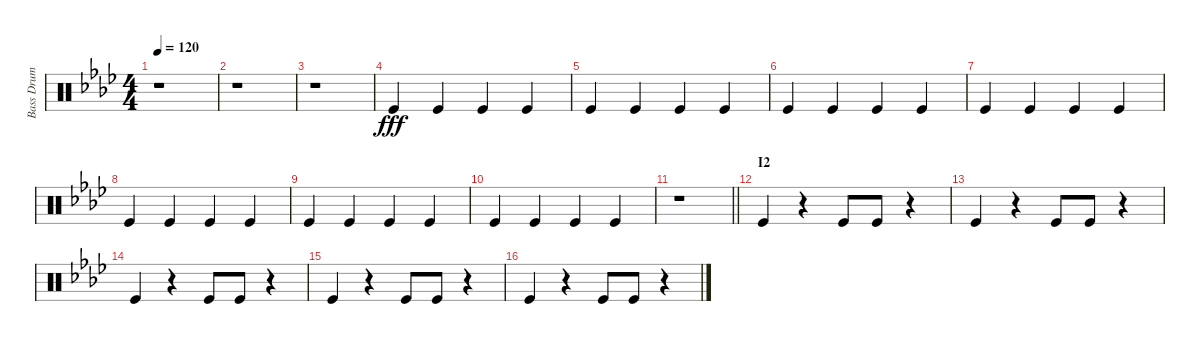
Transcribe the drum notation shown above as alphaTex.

\track ("Bass Drum" "Bass Drum") {instrument percussion}
\staff {score}
\articulation defaults
\ts (4 4)
\tempo 120
\clef neutral
\ks ab
r.1{dy fff} |
r.1 |
r.1 |
"Kick (hit)".4 "Kick (hit)".4 "Kick (hit)".4 "Kick (hit)".4 |
"Kick (hit)".4 "Kick (hit)".4 "Kick (hit)".4 "Kick (hit)".4 |
"Kick (hit)".4 "Kick (hit)".4 "Kick (hit)".4 "Kick (hit)".4 |
"Kick (hit)".4 "Kick (hit)".4 "Kick (hit)".4 "Kick (hit)".4 |
"Kick (hit)".4 "Kick (hit)".4 "Kick (hit)".4 "Kick (hit)".4 |
"Kick (hit)".4 "Kick (hit)".4 "Kick (hit)".4 "Kick (hit)".4 |
"Kick (hit)".4 "Kick (hit)".4 "Kick (hit)".4 "Kick (hit)".4 |
\barLineRight lightlight
r.1 |
\section ("" "I2")
"Kick (hit)".4 r.4 "Kick (hit)".8 "Kick (hit)".8 r.4 |
"Kick (hit)".4 r.4 "Kick (hit)".8 "Kick (hit)".8 r.4 |
"Kick (hit)".4 r.4 "Kick (hit)".8 "Kick (hit)".8 r.4 |
"Kick (hit)".4 r.4 "Kick (hit)".8 "Kick (hit)".8 r.4 |
"Kick (hit)".4 r.4 "Kick (hit)".8 "Kick (hit)".8 r.4
